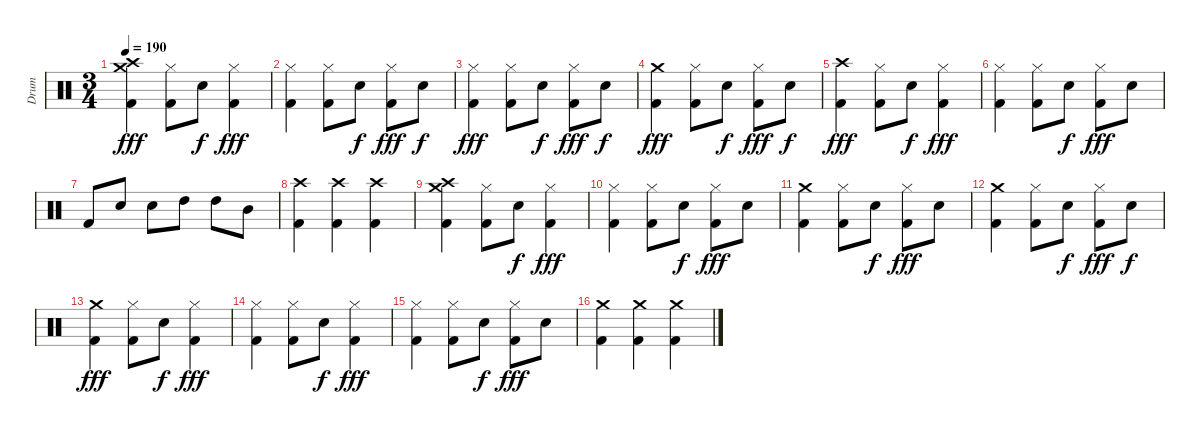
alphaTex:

\track ("Drum" "Drum") {instrument percussion}
\staff {score}
\articulation defaults
\ts (3 4)
\tempo 190
\clef neutral
\ks c
("Crash high (hit)" "Crash medium (hit)" "Kick (hit) 2").4{dy fff} ("Hi-Hat (closed)" "Kick (hit) 2").8 "Snare (hit) 2".8{dy f} ("Hi-Hat (closed)" "Kick (hit) 2").4{dy fff} |
("Hi-Hat (closed)" "Kick (hit) 2").4 ("Hi-Hat (closed)" "Kick (hit) 2").8 "Snare (hit) 2".8{dy f} ("Hi-Hat (closed)" "Kick (hit) 2").8{dy fff} "Snare (hit) 2".8{dy f} |
("Hi-Hat (closed)" "Kick (hit) 2").4{dy fff} ("Hi-Hat (closed)" "Kick (hit) 2").8 "Snare (hit) 2".8{dy f} ("Hi-Hat (closed)" "Kick (hit) 2").8{dy fff} "Snare (hit) 2".8{dy f} |
("Crash medium (hit)" "Kick (hit) 2").4{dy fff} ("Hi-Hat (closed)" "Kick (hit) 2").8 "Snare (hit) 2".8{dy f} ("Hi-Hat (closed)" "Kick (hit) 2").8{dy fff} "Snare (hit) 2".8{dy f} |
("Crash high (hit)" "Kick (hit) 2").4{dy fff} ("Hi-Hat (closed)" "Kick (hit) 2").8 "Snare (hit) 2".8{dy f} ("Hi-Hat (closed)" "Kick (hit) 2").4{dy fff} |
("Hi-Hat (closed)" "Kick (hit) 2").4 ("Hi-Hat (closed)" "Kick (hit) 2").8 "Snare (hit) 2".8{dy f} ("Hi-Hat (closed)" "Kick (hit) 2").8{dy fff} "Snare (hit) 2".8 |
"Kick (hit) 2".8 "Snare (hit) 2".8 "Snare (hit) 2".8 "High Tom (hit)".8 "High Tom (hit)".8 "Mid Tom (hit)".8 |
("Crash high (hit)" "Kick (hit) 2").4 ("Crash high (hit)" "Kick (hit) 2").4 ("Crash high (hit)" "Kick (hit) 2").4 |
("Crash high (hit)" "Crash medium (hit)" "Kick (hit) 2").4 ("Hi-Hat (closed)" "Kick (hit) 2").8 "Snare (hit) 2".8{dy f} ("Hi-Hat (closed)" "Kick (hit) 2").4{dy fff} |
("Hi-Hat (closed)" "Kick (hit) 2").4 ("Hi-Hat (closed)" "Kick (hit) 2").8 "Snare (hit) 2".8{dy f} ("Hi-Hat (closed)" "Kick (hit) 2").8{dy fff} "Snare (hit) 2".8 |
("Crash medium (hit)" "Kick (hit) 2").4 ("Hi-Hat (closed)" "Kick (hit) 2").8 "Snare (hit) 2".8{dy f} ("Hi-Hat (closed)" "Kick (hit) 2").8{dy fff} "Snare (hit) 2".8 |
("Crash medium (hit)" "Kick (hit) 2").4 ("Hi-Hat (closed)" "Kick (hit) 2").8 "Snare (hit) 2".8{dy f} ("Hi-Hat (closed)" "Kick (hit) 2").8{dy fff} "Snare (hit) 2".8{dy f} |
("Crash medium (hit)" "Kick (hit) 2").4{dy fff} ("Hi-Hat (closed)" "Kick (hit) 2").8 "Snare (hit) 2".8{dy f} ("Hi-Hat (closed)" "Kick (hit) 2").4{dy fff} |
("Hi-Hat (closed)" "Kick (hit) 2").4 ("Hi-Hat (closed)" "Kick (hit) 2").8 "Snare (hit) 2".8{dy f} ("Hi-Hat (closed)" "Kick (hit) 2").4{dy fff} |
("Hi-Hat (closed)" "Kick (hit) 2").4 ("Hi-Hat (closed)" "Kick (hit) 2").8 "Snare (hit) 2".8{dy f} ("Hi-Hat (closed)" "Kick (hit) 2").8{dy fff} "Snare (hit) 2".8 |
("Crash medium (hit)" "Kick (hit) 2").4 ("Crash medium (hit)" "Kick (hit) 2").4 ("Crash medium (hit)" "Kick (hit) 2").4
